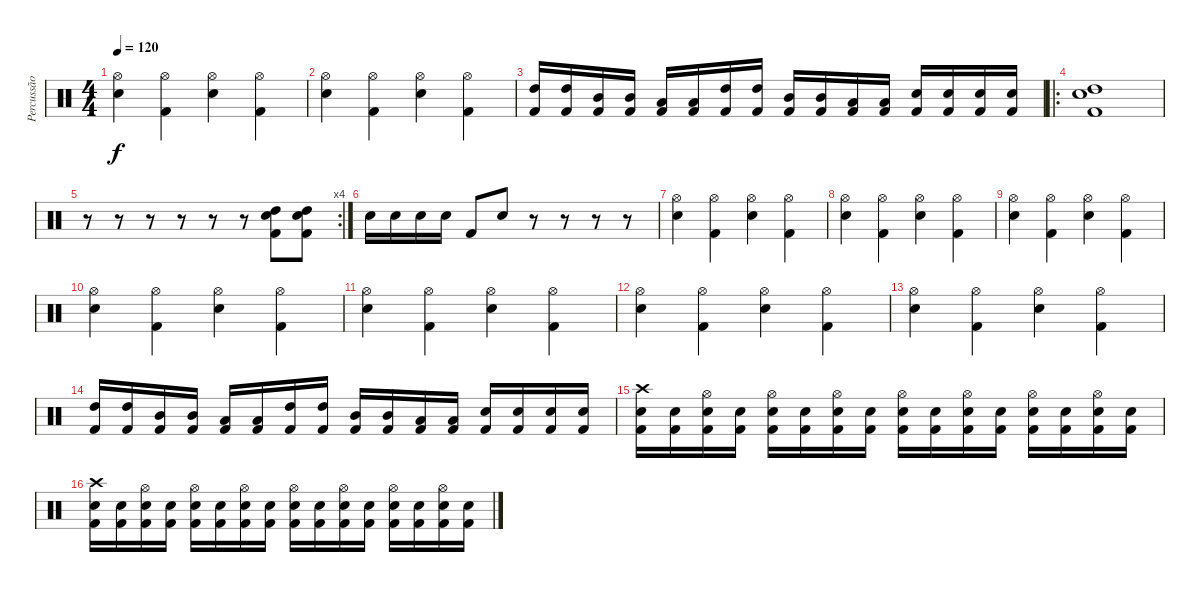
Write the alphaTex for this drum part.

\track ("Percussão" "Percussão") {instrument percussion}
\staff {score}
\articulation defaults
\ts (4 4)
\tempo 120
\clef neutral
\ks c
("Hi-Hat (open)" "Electric Snare (hit)").4{dy f} ("Hi-Hat (open)" "Kick (hit) 2").4 ("Hi-Hat (open)" "Electric Snare (hit)").4 ("Hi-Hat (open)" "Kick (hit) 2").4 |
("Hi-Hat (open)" "Electric Snare (hit)").4 ("Hi-Hat (open)" "Kick (hit) 2").4 ("Hi-Hat (open)" "Electric Snare (hit)").4 ("Hi-Hat (open)" "Kick (hit) 2").4 |
("Kick (hit) 2" "High Tom (hit)").16 ("Kick (hit) 2" "High Tom (hit)").16 ("Kick (hit) 2" "Mid Tom (hit)").16 ("Kick (hit) 2" "Mid Tom (hit)").16 ("Kick (hit) 2" "Low Tom (hit)").16 ("Kick (hit) 2" "Low Tom (hit)").16 ("Kick (hit) 2" "High Tom (hit)").16 ("Kick (hit) 2" "High Tom (hit)").16 ("Kick (hit) 2" "Mid Tom (hit)").16 ("Kick (hit) 2" "Mid Tom (hit)").16 ("Kick (hit) 2" "Low Tom (hit)").16 ("Kick (hit) 2" "Low Tom (hit)").16 ("Kick (hit) 2" "Electric Snare (hit)").16 ("Kick (hit) 2" "Electric Snare (hit)").16 ("Kick (hit) 2" "Electric Snare (hit)").16 ("Kick (hit) 2" "Electric Snare (hit)").16 |
\ro
("High Tom (hit)" "Kick (hit) 2" "Electric Snare (hit)").1 |
\rc 4
r.8 r.8 r.8 r.8 r.8 r.8 ("High Tom (hit)" "Kick (hit) 2" "Electric Snare (hit)").8 ("High Tom (hit)" "Kick (hit) 2" "Electric Snare (hit)").8 |
"Electric Snare (hit)".16 "Electric Snare (hit)".16 "Electric Snare (hit)".16 "Electric Snare (hit)".16 "Kick (hit) 2".8 "Electric Snare (hit)".8{volume 16} r.8 r.8 r.8 r.8 |
("Hi-Hat (open)" "Electric Snare (hit)").4 ("Hi-Hat (open)" "Kick (hit) 2").4 ("Hi-Hat (open)" "Electric Snare (hit)").4 ("Hi-Hat (open)" "Kick (hit) 2").4 |
("Hi-Hat (open)" "Electric Snare (hit)").4 ("Hi-Hat (open)" "Kick (hit) 2").4 ("Hi-Hat (open)" "Electric Snare (hit)").4 ("Hi-Hat (open)" "Kick (hit) 2").4 |
("Hi-Hat (open)" "Electric Snare (hit)").4 ("Hi-Hat (open)" "Kick (hit) 2").4 ("Hi-Hat (open)" "Electric Snare (hit)").4 ("Hi-Hat (open)" "Kick (hit) 2").4 |
("Hi-Hat (open)" "Electric Snare (hit)").4 ("Hi-Hat (open)" "Kick (hit) 2").4 ("Hi-Hat (open)" "Electric Snare (hit)").4 ("Hi-Hat (open)" "Kick (hit) 2").4 |
("Hi-Hat (open)" "Electric Snare (hit)").4 ("Hi-Hat (open)" "Kick (hit) 2").4 ("Hi-Hat (open)" "Electric Snare (hit)").4 ("Hi-Hat (open)" "Kick (hit) 2").4 |
("Hi-Hat (open)" "Electric Snare (hit)").4 ("Hi-Hat (open)" "Kick (hit) 2").4 ("Hi-Hat (open)" "Electric Snare (hit)").4 ("Hi-Hat (open)" "Kick (hit) 2").4 |
("Hi-Hat (open)" "Electric Snare (hit)").4 ("Hi-Hat (open)" "Kick (hit) 2").4 ("Hi-Hat (open)" "Electric Snare (hit)").4 ("Hi-Hat (open)" "Kick (hit) 2").4 |
("Kick (hit) 2" "High Tom (hit)").16 ("Kick (hit) 2" "High Tom (hit)").16 ("Kick (hit) 2" "Mid Tom (hit)").16 ("Kick (hit) 2" "Mid Tom (hit)").16 ("Kick (hit) 2" "Low Tom (hit)").16 ("Kick (hit) 2" "Low Tom (hit)").16 ("Kick (hit) 2" "High Tom (hit)").16 ("Kick (hit) 2" "High Tom (hit)").16 ("Kick (hit) 2" "Mid Tom (hit)").16 ("Kick (hit) 2" "Mid Tom (hit)").16 ("Kick (hit) 2" "Low Tom (hit)").16 ("Kick (hit) 2" "Low Tom (hit)").16 ("Kick (hit) 2" "Electric Snare (hit)").16 ("Kick (hit) 2" "Electric Snare (hit)").16 ("Kick (hit) 2" "Electric Snare (hit)").16 ("Kick (hit) 2" "Electric Snare (hit)").16 |
("Crash high (hit)" "Kick (hit) 2" "Electric Snare (hit)").16 ("Kick (hit) 2" "Electric Snare (hit)").16 ("Kick (hit) 2" "Electric Snare (hit)" "Hi-Hat (open)").16 ("Kick (hit) 2" "Electric Snare (hit)").16 ("Kick (hit) 2" "Electric Snare (hit)" "Hi-Hat (open)").16 ("Kick (hit) 2" "Electric Snare (hit)").16 ("Kick (hit) 2" "Electric Snare (hit)" "Hi-Hat (open)").16 ("Kick (hit) 2" "Electric Snare (hit)").16 ("Kick (hit) 2" "Electric Snare (hit)" "Hi-Hat (open)").16 ("Kick (hit) 2" "Electric Snare (hit)").16 ("Kick (hit) 2" "Electric Snare (hit)" "Hi-Hat (open)").16 ("Kick (hit) 2" "Electric Snare (hit)").16 ("Kick (hit) 2" "Electric Snare (hit)" "Hi-Hat (open)").16 ("Kick (hit) 2" "Electric Snare (hit)").16 ("Kick (hit) 2" "Electric Snare (hit)" "Hi-Hat (open)").16 ("Kick (hit) 2" "Electric Snare (hit)").16 |
("Crash high (hit)" "Kick (hit) 2" "Electric Snare (hit)").16 ("Kick (hit) 2" "Electric Snare (hit)").16 ("Kick (hit) 2" "Electric Snare (hit)" "Hi-Hat (open)").16 ("Kick (hit) 2" "Electric Snare (hit)").16 ("Kick (hit) 2" "Electric Snare (hit)" "Hi-Hat (open)").16 ("Kick (hit) 2" "Electric Snare (hit)").16 ("Kick (hit) 2" "Electric Snare (hit)" "Hi-Hat (open)").16 ("Kick (hit) 2" "Electric Snare (hit)").16 ("Kick (hit) 2" "Electric Snare (hit)" "Hi-Hat (open)").16 ("Kick (hit) 2" "Electric Snare (hit)").16 ("Kick (hit) 2" "Electric Snare (hit)" "Hi-Hat (open)").16 ("Kick (hit) 2" "Electric Snare (hit)").16 ("Kick (hit) 2" "Electric Snare (hit)" "Hi-Hat (open)").16 ("Kick (hit) 2" "Electric Snare (hit)").16 ("Kick (hit) 2" "Electric Snare (hit)" "Hi-Hat (open)").16 ("Kick (hit) 2" "Electric Snare (hit)").16
